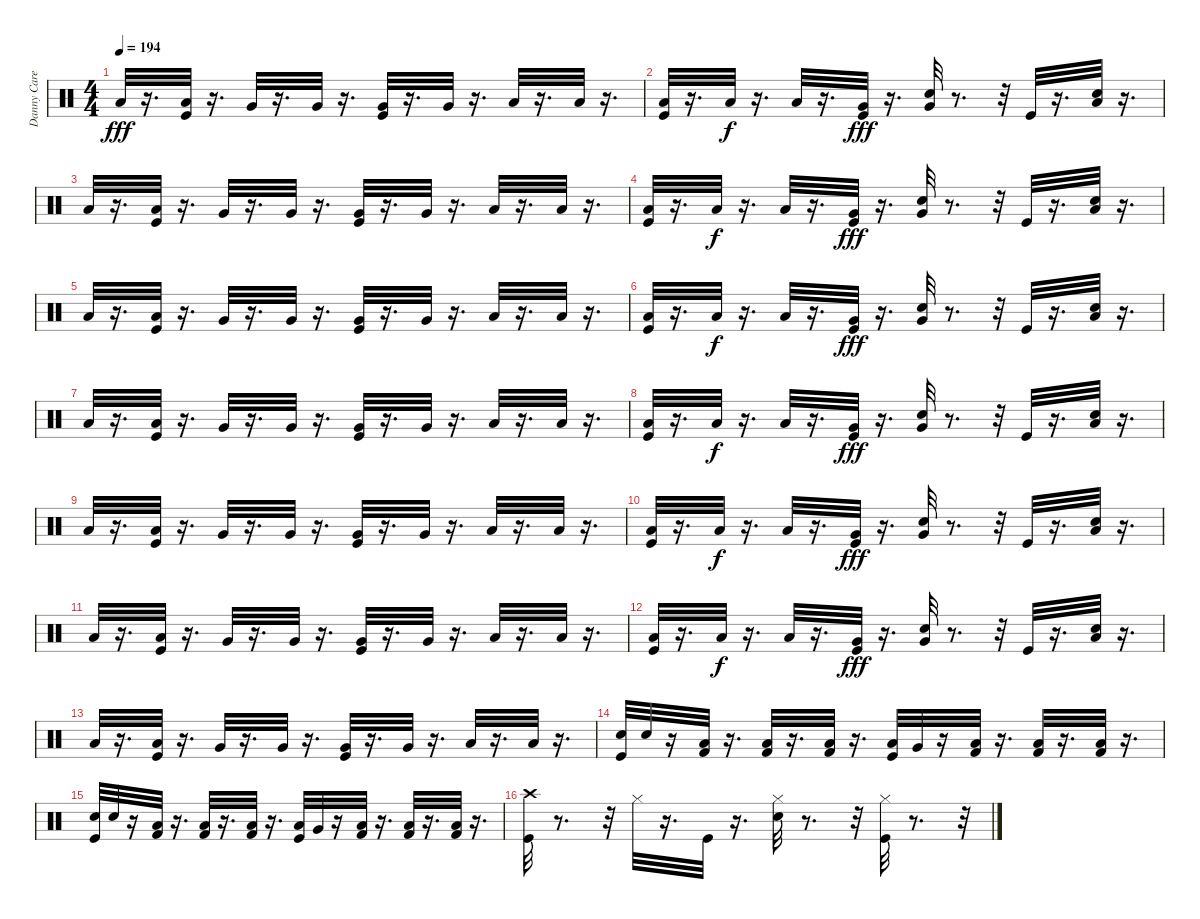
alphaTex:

\track ("Danny Carey" "Danny Care") {instrument percussion}
\staff {score}
\articulation defaults
\ts (4 4)
\tempo 194
\clef neutral
\ks c "Low Tom (hit)".32{dy fff}
r.16{d} ("Low Tom (hit)" "Kick (hit)").32 r.16{d} "Very Low Tom (hit)".32 r.16{d} "Very Low Tom (hit)".32 r.16{d} ("Very Low Tom (hit)" "Kick (hit)").32 r.16{d} "Very Low Tom (hit)".32 r.16{d} "Low Floor Tom (hit)".32 r.16{d} "Low Floor Tom (hit)".32 r.16{d} |
("Low Floor Tom (hit)" "Kick (hit)").32 r.16{d} "Low Floor Tom (hit)".32{dy f} r.16{d} "Low Floor Tom (hit)".32 r.16{d} ("Very Low Tom (hit)" "Kick (hit)").32{dy fff} r.16{d} ("Very Low Tom (hit)" "Snare (hit) 2").32 r.8{d} r.32 "Kick (hit)".32 r.16{d} ("Low Tom (hit)" "Snare (hit) 2").32 r.16{d} |
"Low Tom (hit)".32 r.16{d} ("Low Tom (hit)" "Kick (hit)").32 r.16{d} "Very Low Tom (hit)".32 r.16{d} "Very Low Tom (hit)".32 r.16{d} ("Very Low Tom (hit)" "Kick (hit)").32 r.16{d} "Very Low Tom (hit)".32 r.16{d} "Low Floor Tom (hit)".32 r.16{d} "Low Floor Tom (hit)".32 r.16{d} |
("Low Floor Tom (hit)" "Kick (hit)").32 r.16{d} "Low Floor Tom (hit)".32{dy f} r.16{d} "Low Floor Tom (hit)".32 r.16{d} ("Very Low Tom (hit)" "Kick (hit)").32{dy fff} r.16{d} ("Very Low Tom (hit)" "Snare (hit) 2").32 r.8{d} r.32 "Kick (hit)".32 r.16{d} ("Low Tom (hit)" "Snare (hit) 2").32 r.16{d} |
"Low Tom (hit)".32 r.16{d} ("Low Tom (hit)" "Kick (hit)").32 r.16{d} "Very Low Tom (hit)".32 r.16{d} "Very Low Tom (hit)".32 r.16{d} ("Very Low Tom (hit)" "Kick (hit)").32 r.16{d} "Very Low Tom (hit)".32 r.16{d} "Low Floor Tom (hit)".32 r.16{d} "Low Floor Tom (hit)".32 r.16{d} |
("Low Floor Tom (hit)" "Kick (hit)").32 r.16{d} "Low Floor Tom (hit)".32{dy f} r.16{d} "Low Floor Tom (hit)".32 r.16{d} ("Very Low Tom (hit)" "Kick (hit)").32{dy fff} r.16{d} ("Very Low Tom (hit)" "Snare (hit) 2").32 r.8{d} r.32 "Kick (hit)".32 r.16{d} ("Low Tom (hit)" "Snare (hit) 2").32 r.16{d} |
"Low Tom (hit)".32 r.16{d} ("Low Tom (hit)" "Kick (hit)").32 r.16{d} "Very Low Tom (hit)".32 r.16{d} "Very Low Tom (hit)".32 r.16{d} ("Very Low Tom (hit)" "Kick (hit)").32 r.16{d} "Very Low Tom (hit)".32 r.16{d} "Low Floor Tom (hit)".32 r.16{d} "Low Floor Tom (hit)".32 r.16{d} |
("Low Floor Tom (hit)" "Kick (hit)").32 r.16{d} "Low Floor Tom (hit)".32{dy f} r.16{d} "Low Floor Tom (hit)".32 r.16{d} ("Very Low Tom (hit)" "Kick (hit)").32{dy fff} r.16{d} ("Very Low Tom (hit)" "Snare (hit) 2").32 r.8{d} r.32 "Kick (hit)".32 r.16{d} ("Low Tom (hit)" "Snare (hit) 2").32 r.16{d} |
"Low Tom (hit)".32 r.16{d} ("Low Tom (hit)" "Kick (hit)").32 r.16{d} "Very Low Tom (hit)".32 r.16{d} "Very Low Tom (hit)".32 r.16{d} ("Very Low Tom (hit)" "Kick (hit)").32 r.16{d} "Very Low Tom (hit)".32 r.16{d} "Low Floor Tom (hit)".32 r.16{d} "Low Floor Tom (hit)".32 r.16{d} |
("Low Floor Tom (hit)" "Kick (hit)").32 r.16{d} "Low Floor Tom (hit)".32{dy f} r.16{d} "Low Floor Tom (hit)".32 r.16{d} ("Very Low Tom (hit)" "Kick (hit)").32{dy fff} r.16{d} ("Very Low Tom (hit)" "Snare (hit) 2").32 r.8{d} r.32 "Kick (hit)".32 r.16{d} ("Low Tom (hit)" "Snare (hit) 2").32 r.16{d} |
"Low Tom (hit)".32 r.16{d} ("Low Tom (hit)" "Kick (hit)").32 r.16{d} "Very Low Tom (hit)".32 r.16{d} "Very Low Tom (hit)".32 r.16{d} ("Very Low Tom (hit)" "Kick (hit)").32 r.16{d} "Very Low Tom (hit)".32 r.16{d} "Low Floor Tom (hit)".32 r.16{d} "Low Floor Tom (hit)".32 r.16{d} |
("Low Floor Tom (hit)" "Kick (hit)").32 r.16{d} "Low Floor Tom (hit)".32{dy f} r.16{d} "Low Floor Tom (hit)".32 r.16{d} ("Very Low Tom (hit)" "Kick (hit)").32{dy fff} r.16{d} ("Very Low Tom (hit)" "Snare (hit) 2").32 r.8{d} r.32 "Kick (hit)".32 r.16{d} ("Low Tom (hit)" "Snare (hit) 2").32 r.16{d} |
"Low Tom (hit)".32 r.16{d} ("Low Tom (hit)" "Kick (hit)").32 r.16{d} "Very Low Tom (hit)".32 r.16{d} "Very Low Tom (hit)".32 r.16{d} ("Very Low Tom (hit)" "Kick (hit)").32 r.16{d} "Very Low Tom (hit)".32 r.16{d} "Low Floor Tom (hit)".32 r.16{d} "Low Floor Tom (hit)".32 r.16{d} |
("Snare (hit) 2" "Kick (hit)").32 "Snare (hit) 2".32 r.16 ("Low Floor Tom (hit)" "Kick (hit) 2").32 r.16{d} ("Low Floor Tom (hit)" "Kick (hit) 2").32 r.16{d} ("Low Floor Tom (hit)" "Kick (hit) 2").32 r.16{d} ("Low Floor Tom (hit)" "Kick (hit)").32 "Very Low Tom (hit)".32 r.16 ("Low Floor Tom (hit)" "Kick (hit) 2").32 r.16{d} ("Low Floor Tom (hit)" "Kick (hit) 2").32 r.16{d} ("Low Floor Tom (hit)" "Kick (hit) 2").32 r.16{d} |
("Snare (hit) 2" "Kick (hit)").32 "Snare (hit) 2".32 r.16 ("Low Floor Tom (hit)" "Kick (hit) 2").32 r.16{d} ("Low Floor Tom (hit)" "Kick (hit) 2").32 r.16{d} ("Low Floor Tom (hit)" "Kick (hit) 2").32 r.16{d} ("Low Floor Tom (hit)" "Kick (hit)").32 "Very Low Tom (hit)".32 r.16 ("Low Floor Tom (hit)" "Kick (hit) 2").32 r.16{d} ("Low Floor Tom (hit)" "Kick (hit) 2").32 r.16{d} ("Low Floor Tom (hit)" "Kick (hit) 2").32 r.16{d} |
("Crash high (hit)" "Kick (hit)").32 r.8{d} r.32 "Hi-Hat (closed)".32 r.16{d} "Kick (hit)".32 r.16{d} ("Hi-Hat (closed)" "Snare (hit) 2").32 r.8{d} r.32 ("Hi-Hat (closed)" "Kick (hit)").32 r.8{d} r.32
